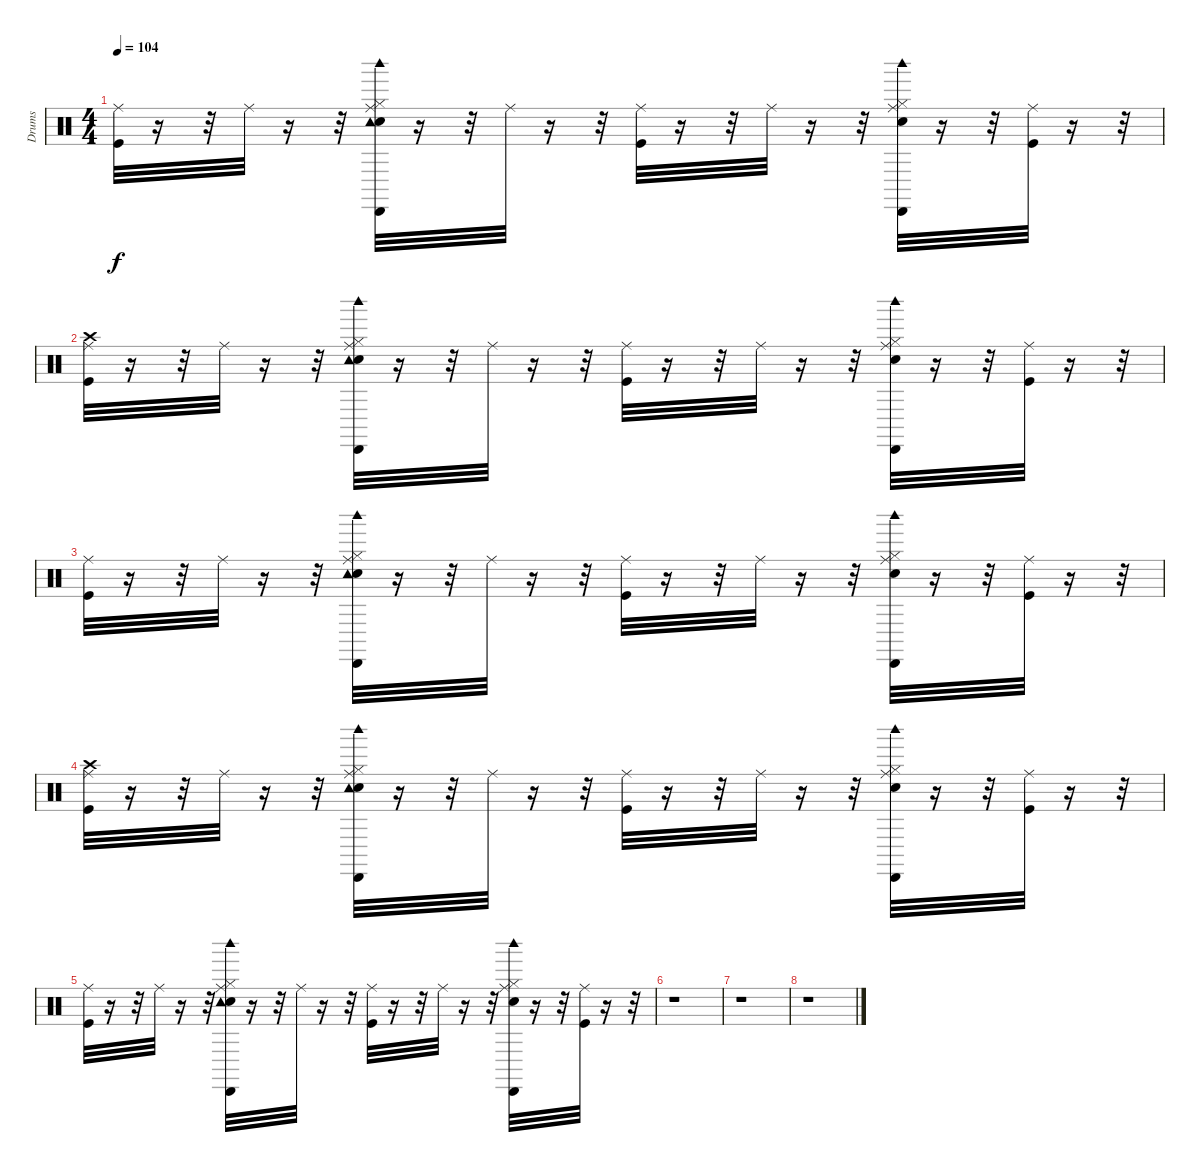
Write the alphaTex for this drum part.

\track ("Drums" "Drums") {instrument percussion}
\staff {score}
\articulation defaults
\ts (4 4)
\tempo 104
\clef neutral
\ks c
("Kick (hit)" "Ride (middle)").32{dy f} r.16 r.32 "Ride (middle)".32 r.16 r.32 ("Snare (hit) 2" "Hi-Hat (closed)" "Ride (middle)" "Tambourine (hit)" "Cabasa (hit)" "Woodblock high (hit)").32 r.16 r.32 "Ride (middle)".32 r.16 r.32 ("Kick (hit)" "Ride (middle)").32 r.16 r.32 "Ride (middle)".32 r.16 r.32 ("Snare (hit) 2" "Hi-Hat (closed)" "Ride (middle)" "Cabasa (hit)" "Woodblock high (hit)").32 r.16 r.32 ("Kick (hit)" "Ride (middle)").32 r.16 r.32 |
("Kick (hit)" "Crash high (hit)" "Ride (middle)").32 r.16 r.32 "Ride (middle)".32 r.16 r.32 ("Snare (hit) 2" "Hi-Hat (closed)" "Ride (middle)" "Tambourine (hit)" "Cabasa (hit)" "Woodblock high (hit)").32 r.16 r.32 "Ride (middle)".32 r.16 r.32 ("Kick (hit)" "Ride (middle)").32 r.16 r.32 "Ride (middle)".32 r.16 r.32 ("Snare (hit) 2" "Hi-Hat (closed)" "Ride (middle)" "Cabasa (hit)" "Woodblock high (hit)").32 r.16 r.32 ("Kick (hit)" "Ride (middle)").32 r.16 r.32 |
("Kick (hit)" "Ride (middle)").32 r.16 r.32 "Ride (middle)".32 r.16 r.32 ("Snare (hit) 2" "Hi-Hat (closed)" "Ride (middle)" "Tambourine (hit)" "Cabasa (hit)" "Woodblock high (hit)").32 r.16 r.32 "Ride (middle)".32 r.16 r.32 ("Kick (hit)" "Ride (middle)").32 r.16 r.32 "Ride (middle)".32 r.16 r.32 ("Snare (hit) 2" "Hi-Hat (closed)" "Ride (middle)" "Cabasa (hit)" "Woodblock high (hit)").32 r.16 r.32 ("Kick (hit)" "Ride (middle)").32 r.16 r.32 |
("Kick (hit)" "Crash high (hit)" "Ride (middle)").32 r.16 r.32 "Ride (middle)".32 r.16 r.32 ("Snare (hit) 2" "Hi-Hat (closed)" "Ride (middle)" "Tambourine (hit)" "Cabasa (hit)" "Woodblock high (hit)").32 r.16 r.32 "Ride (middle)".32 r.16 r.32 ("Kick (hit)" "Ride (middle)").32 r.16 r.32 "Ride (middle)".32 r.16 r.32 ("Snare (hit) 2" "Hi-Hat (closed)" "Ride (middle)" "Cabasa (hit)" "Woodblock high (hit)").32 r.16 r.32 ("Kick (hit)" "Ride (middle)").32 r.16 r.32 |
("Kick (hit)" "Ride (middle)").32 r.16 r.32 "Ride (middle)".32 r.16 r.32 ("Snare (hit) 2" "Hi-Hat (closed)" "Ride (middle)" "Tambourine (hit)" "Cabasa (hit)" "Woodblock high (hit)").32 r.16 r.32 "Ride (middle)".32 r.16 r.32 ("Kick (hit)" "Ride (middle)").32 r.16 r.32 "Ride (middle)".32 r.16 r.32 ("Snare (hit) 2" "Hi-Hat (closed)" "Ride (middle)" "Cabasa (hit)" "Woodblock high (hit)").32 r.16 r.32 ("Kick (hit)" "Ride (middle)").32 r.16 r.32 |
r.1 |
r.1 |
r.1
